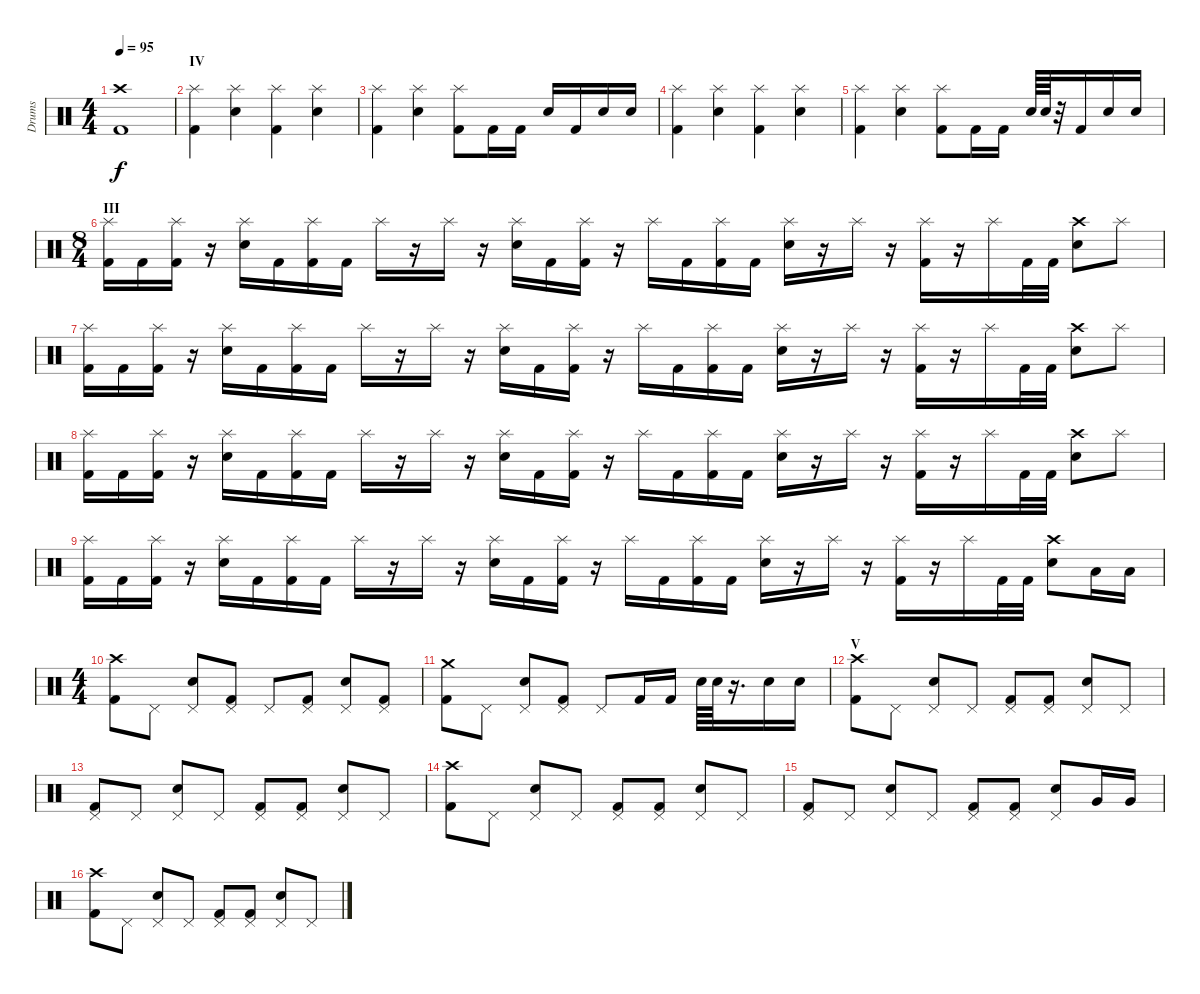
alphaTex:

\track ("Drums" "Drums") {instrument percussion}
\staff {score}
\articulation defaults
\ts (4 4)
\tempo 95
\clef neutral
\ks c
("Crash high (hit)" "Kick (hit) 2").1{dy f} |
\section ("" "IV")
("Splash (hit)" "Kick (hit) 2").4 ("Splash (hit)" "Electric Snare (hit)").4 ("Splash (hit)" "Kick (hit) 2").4 ("Splash (hit)" "Electric Snare (hit)").4 |
("Splash (hit)" "Kick (hit) 2").4 ("Splash (hit)" "Electric Snare (hit)").4 ("Splash (hit)" "Kick (hit) 2").8 "Kick (hit) 2".16 "Kick (hit) 2".16 "Electric Snare (hit)".16 "Kick (hit) 2".16 "Electric Snare (hit)".16 "Electric Snare (hit)".16 |
("Splash (hit)" "Kick (hit) 2").4 ("Splash (hit)" "Electric Snare (hit)").4 ("Splash (hit)" "Kick (hit) 2").4 ("Splash (hit)" "Electric Snare (hit)").4 |
("Splash (hit)" "Kick (hit) 2").4 ("Splash (hit)" "Electric Snare (hit)").4 ("Splash (hit)" "Kick (hit) 2").8 "Kick (hit) 2".16 "Kick (hit) 2".16 "Electric Snare (hit)".64 "Electric Snare (hit)".64 r.32 "Kick (hit) 2".16 "Electric Snare (hit)".16 "Electric Snare (hit)".16 |
\ts (8 4)
\section ("" "III")
("Splash (hit)" "Kick (hit) 2").16 "Kick (hit) 2".16 ("Splash (hit)" "Kick (hit) 2").16 r.16 ("Splash (hit)" "Electric Snare (hit)").16 "Kick (hit) 2".16 ("Splash (hit)" "Kick (hit) 2").16 "Kick (hit) 2".16 "Splash (hit)".16 r.16 "Splash (hit)".16 r.16 ("Splash (hit)" "Electric Snare (hit)").16 "Kick (hit) 2".16 ("Splash (hit)" "Kick (hit) 2").16 r.16 "Splash (hit)".16 "Kick (hit) 2".16 ("Splash (hit)" "Kick (hit) 2").16 "Kick (hit) 2".16 ("Splash (hit)" "Electric Snare (hit)").16 r.16 "Splash (hit)".16 r.16 ("Splash (hit)" "Kick (hit) 2").16 r.16 "Splash (hit)".16 "Kick (hit) 2".32 "Kick (hit) 2".32 ("Crash high (hit)" "Electric Snare (hit)").8 "Splash (hit)".8 |
("Splash (hit)" "Kick (hit) 2").16 "Kick (hit) 2".16 ("Splash (hit)" "Kick (hit) 2").16 r.16 ("Splash (hit)" "Electric Snare (hit)").16 "Kick (hit) 2".16 ("Splash (hit)" "Kick (hit) 2").16 "Kick (hit) 2".16 "Splash (hit)".16 r.16 "Splash (hit)".16 r.16 ("Splash (hit)" "Electric Snare (hit)").16 "Kick (hit) 2".16 ("Splash (hit)" "Kick (hit) 2").16 r.16 "Splash (hit)".16 "Kick (hit) 2".16 ("Splash (hit)" "Kick (hit) 2").16 "Kick (hit) 2".16 ("Splash (hit)" "Electric Snare (hit)").16 r.16 "Splash (hit)".16 r.16 ("Splash (hit)" "Kick (hit) 2").16 r.16 "Splash (hit)".16 "Kick (hit) 2".32 "Kick (hit) 2".32 ("Crash high (hit)" "Electric Snare (hit)").8 "Splash (hit)".8 |
("Splash (hit)" "Kick (hit) 2").16 "Kick (hit) 2".16 ("Splash (hit)" "Kick (hit) 2").16 r.16 ("Splash (hit)" "Electric Snare (hit)").16 "Kick (hit) 2".16 ("Splash (hit)" "Kick (hit) 2").16 "Kick (hit) 2".16 "Splash (hit)".16 r.16 "Splash (hit)".16 r.16 ("Splash (hit)" "Electric Snare (hit)").16 "Kick (hit) 2".16 ("Splash (hit)" "Kick (hit) 2").16 r.16 "Splash (hit)".16 "Kick (hit) 2".16 ("Splash (hit)" "Kick (hit) 2").16 "Kick (hit) 2".16 ("Splash (hit)" "Electric Snare (hit)").16 r.16 "Splash (hit)".16 r.16 ("Splash (hit)" "Kick (hit) 2").16 r.16 "Splash (hit)".16 "Kick (hit) 2".32 "Kick (hit) 2".32 ("Crash high (hit)" "Electric Snare (hit)").8 "Splash (hit)".8 |
("Splash (hit)" "Kick (hit) 2").16 "Kick (hit) 2".16 ("Splash (hit)" "Kick (hit) 2").16 r.16 ("Splash (hit)" "Electric Snare (hit)").16 "Kick (hit) 2".16 ("Splash (hit)" "Kick (hit) 2").16 "Kick (hit) 2".16 "Splash (hit)".16 r.16 "Splash (hit)".16 r.16 ("Splash (hit)" "Electric Snare (hit)").16 "Kick (hit) 2".16 ("Splash (hit)" "Kick (hit) 2").16 r.16 "Splash (hit)".16 "Kick (hit) 2".16 ("Splash (hit)" "Kick (hit) 2").16 "Kick (hit) 2".16 ("Splash (hit)" "Electric Snare (hit)").16 r.16 "Splash (hit)".16 r.16 ("Splash (hit)" "Kick (hit) 2").16 r.16 "Splash (hit)".16 "Kick (hit) 2".32 "Kick (hit) 2".32 ("Crash high (hit)" "Electric Snare (hit)").8 "Low Tom (hit)".16 "Low Tom (hit)".16 |
\ts (4 4)
("Crash high (hit)" "Kick (hit) 2").8 "Pedal Hi-Hat (hit)".8 ("Pedal Hi-Hat (hit)" "Electric Snare (hit)").8 ("Pedal Hi-Hat (hit)" "Kick (hit) 2").8 "Pedal Hi-Hat (hit)".8 ("Pedal Hi-Hat (hit)" "Kick (hit) 2").8 ("Pedal Hi-Hat (hit)" "Electric Snare (hit)").8 ("Pedal Hi-Hat (hit)" "Kick (hit) 2").8 |
("Crash medium (hit)" "Kick (hit) 2").8 "Pedal Hi-Hat (hit)".8 ("Pedal Hi-Hat (hit)" "Electric Snare (hit)").8 ("Pedal Hi-Hat (hit)" "Kick (hit) 2").8 "Pedal Hi-Hat (hit)".8 "Kick (hit) 2".16 "Kick (hit) 2".16 "Electric Snare (hit)".64 "Electric Snare (hit)".64 r.16{d} "Electric Snare (hit)".16 "Electric Snare (hit)".16 |
\section ("" "V")
("Crash high (hit)" "Kick (hit) 2").8 "Pedal Hi-Hat (hit)".8 ("Pedal Hi-Hat (hit)" "Electric Snare (hit)").8 "Pedal Hi-Hat (hit)".8 ("Pedal Hi-Hat (hit)" "Kick (hit) 2").8 ("Pedal Hi-Hat (hit)" "Kick (hit) 2").8 ("Pedal Hi-Hat (hit)" "Electric Snare (hit)").8 "Pedal Hi-Hat (hit)".8 |
("Pedal Hi-Hat (hit)" "Kick (hit) 2").8 "Pedal Hi-Hat (hit)".8 ("Pedal Hi-Hat (hit)" "Electric Snare (hit)").8 "Pedal Hi-Hat (hit)".8 ("Pedal Hi-Hat (hit)" "Kick (hit) 2").8 ("Pedal Hi-Hat (hit)" "Kick (hit) 2").8 ("Pedal Hi-Hat (hit)" "Electric Snare (hit)").8 "Pedal Hi-Hat (hit)".8 |
("Crash high (hit)" "Kick (hit) 2").8 "Pedal Hi-Hat (hit)".8 ("Pedal Hi-Hat (hit)" "Electric Snare (hit)").8 "Pedal Hi-Hat (hit)".8 ("Pedal Hi-Hat (hit)" "Kick (hit) 2").8 ("Pedal Hi-Hat (hit)" "Kick (hit) 2").8 ("Pedal Hi-Hat (hit)" "Electric Snare (hit)").8 "Pedal Hi-Hat (hit)".8 |
("Pedal Hi-Hat (hit)" "Kick (hit) 2").8 "Pedal Hi-Hat (hit)".8 ("Pedal Hi-Hat (hit)" "Electric Snare (hit)").8 "Pedal Hi-Hat (hit)".8 ("Pedal Hi-Hat (hit)" "Kick (hit) 2").8 ("Pedal Hi-Hat (hit)" "Kick (hit) 2").8 ("Pedal Hi-Hat (hit)" "Electric Snare (hit)").8 "Very Low Tom (hit)".16 "Very Low Tom (hit)".16 |
("Crash high (hit)" "Kick (hit) 2").8 "Pedal Hi-Hat (hit)".8 ("Pedal Hi-Hat (hit)" "Electric Snare (hit)").8 "Pedal Hi-Hat (hit)".8 ("Pedal Hi-Hat (hit)" "Kick (hit) 2").8 ("Pedal Hi-Hat (hit)" "Kick (hit) 2").8 ("Pedal Hi-Hat (hit)" "Electric Snare (hit)").8 "Pedal Hi-Hat (hit)".8
